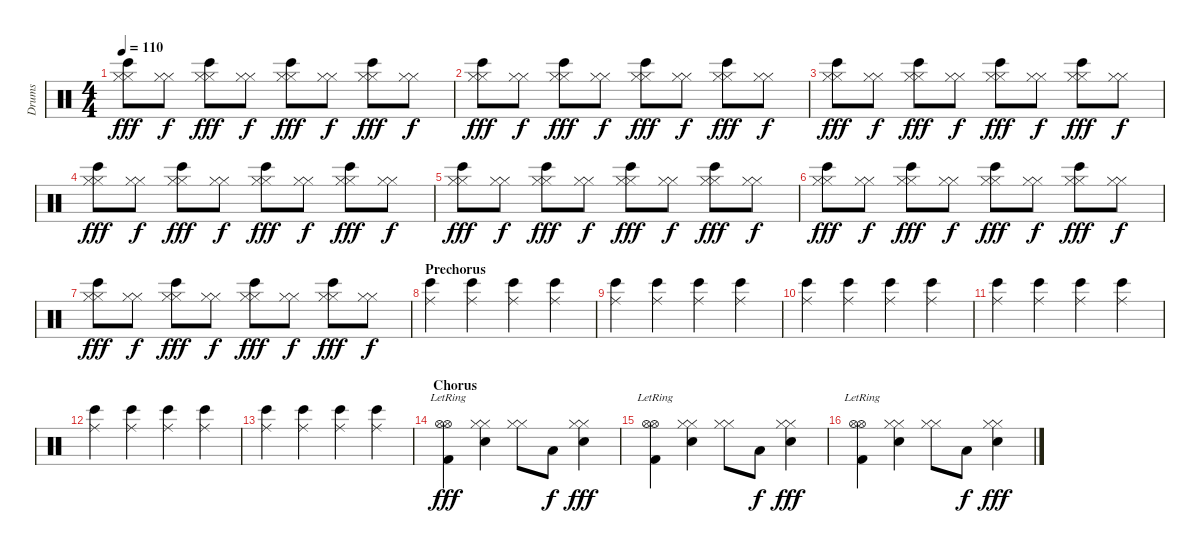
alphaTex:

\track ("Drums" "Drums") {instrument percussion}
\staff {score}
\articulation defaults
\ts (4 4)
\tempo 110
\clef neutral
\ks c
("Hi-Hat (closed)" "Hi-Hat (closed)" "Bongo High (hit)").8{dy fff} ("Hi-Hat (closed)" "Hi-Hat (closed)").8{dy f} ("Hi-Hat (closed)" "Hi-Hat (closed)" "Bongo High (hit)").8{dy fff} ("Hi-Hat (closed)" "Hi-Hat (closed)").8{dy f} ("Hi-Hat (closed)" "Hi-Hat (closed)" "Bongo High (hit)").8{dy fff} ("Hi-Hat (closed)" "Hi-Hat (closed)").8{dy f} ("Hi-Hat (closed)" "Hi-Hat (closed)" "Bongo High (hit)").8{dy fff} ("Hi-Hat (closed)" "Hi-Hat (closed)").8{dy f} |
("Hi-Hat (closed)" "Hi-Hat (closed)" "Bongo High (hit)").8{dy fff} ("Hi-Hat (closed)" "Hi-Hat (closed)").8{dy f} ("Hi-Hat (closed)" "Hi-Hat (closed)" "Bongo High (hit)").8{dy fff} ("Hi-Hat (closed)" "Hi-Hat (closed)").8{dy f} ("Hi-Hat (closed)" "Hi-Hat (closed)" "Bongo High (hit)").8{dy fff} ("Hi-Hat (closed)" "Hi-Hat (closed)").8{dy f} ("Hi-Hat (closed)" "Hi-Hat (closed)" "Bongo High (hit)").8{dy fff} ("Hi-Hat (closed)" "Hi-Hat (closed)").8{dy f} |
("Hi-Hat (closed)" "Hi-Hat (closed)" "Bongo High (hit)").8{dy fff} ("Hi-Hat (closed)" "Hi-Hat (closed)").8{dy f} ("Hi-Hat (closed)" "Hi-Hat (closed)" "Bongo High (hit)").8{dy fff} ("Hi-Hat (closed)" "Hi-Hat (closed)").8{dy f} ("Hi-Hat (closed)" "Hi-Hat (closed)" "Bongo High (hit)").8{dy fff} ("Hi-Hat (closed)" "Hi-Hat (closed)").8{dy f} ("Hi-Hat (closed)" "Hi-Hat (closed)" "Bongo High (hit)").8{dy fff} ("Hi-Hat (closed)" "Hi-Hat (closed)").8{dy f} |
("Hi-Hat (closed)" "Hi-Hat (closed)" "Bongo High (hit)").8{dy fff} ("Hi-Hat (closed)" "Hi-Hat (closed)").8{dy f} ("Hi-Hat (closed)" "Hi-Hat (closed)" "Bongo High (hit)").8{dy fff} ("Hi-Hat (closed)" "Hi-Hat (closed)").8{dy f} ("Hi-Hat (closed)" "Hi-Hat (closed)" "Bongo High (hit)").8{dy fff} ("Hi-Hat (closed)" "Hi-Hat (closed)").8{dy f} ("Hi-Hat (closed)" "Hi-Hat (closed)" "Bongo High (hit)").8{dy fff} ("Hi-Hat (closed)" "Hi-Hat (closed)").8{dy f} |
("Hi-Hat (closed)" "Hi-Hat (closed)" "Bongo High (hit)").8{dy fff} ("Hi-Hat (closed)" "Hi-Hat (closed)").8{dy f} ("Hi-Hat (closed)" "Hi-Hat (closed)" "Bongo High (hit)").8{dy fff} ("Hi-Hat (closed)" "Hi-Hat (closed)").8{dy f} ("Hi-Hat (closed)" "Hi-Hat (closed)" "Bongo High (hit)").8{dy fff} ("Hi-Hat (closed)" "Hi-Hat (closed)").8{dy f} ("Hi-Hat (closed)" "Hi-Hat (closed)" "Bongo High (hit)").8{dy fff} ("Hi-Hat (closed)" "Hi-Hat (closed)").8{dy f} |
("Hi-Hat (closed)" "Hi-Hat (closed)" "Bongo High (hit)").8{dy fff} ("Hi-Hat (closed)" "Hi-Hat (closed)").8{dy f} ("Hi-Hat (closed)" "Hi-Hat (closed)" "Bongo High (hit)").8{dy fff} ("Hi-Hat (closed)" "Hi-Hat (closed)").8{dy f} ("Hi-Hat (closed)" "Hi-Hat (closed)" "Bongo High (hit)").8{dy fff} ("Hi-Hat (closed)" "Hi-Hat (closed)").8{dy f} ("Hi-Hat (closed)" "Hi-Hat (closed)" "Bongo High (hit)").8{dy fff} ("Hi-Hat (closed)" "Hi-Hat (closed)").8{dy f} |
("Hi-Hat (closed)" "Hi-Hat (closed)" "Bongo High (hit)").8{dy fff} ("Hi-Hat (closed)" "Hi-Hat (closed)").8{dy f} ("Hi-Hat (closed)" "Hi-Hat (closed)" "Bongo High (hit)").8{dy fff} ("Hi-Hat (closed)" "Hi-Hat (closed)").8{dy f} ("Hi-Hat (closed)" "Hi-Hat (closed)" "Bongo High (hit)").8{dy fff} ("Hi-Hat (closed)" "Hi-Hat (closed)").8{dy f} ("Hi-Hat (closed)" "Hi-Hat (closed)" "Bongo High (hit)").8{dy fff} ("Hi-Hat (closed)" "Hi-Hat (closed)").8{dy f} |
\section ("" "Prechorus")
("Ride (middle)" "Bongo High (hit)").4 ("Ride (middle)" "Bongo High (hit)").4 ("Ride (middle)" "Bongo High (hit)").4 ("Ride (middle)" "Bongo High (hit)").4 |
("Ride (middle)" "Bongo High (hit)").4 ("Ride (middle)" "Bongo High (hit)").4 ("Ride (middle)" "Bongo High (hit)").4 ("Ride (middle)" "Bongo High (hit)").4 |
("Ride (middle)" "Bongo High (hit)").4 ("Ride (middle)" "Bongo High (hit)").4 ("Ride (middle)" "Bongo High (hit)").4 ("Ride (middle)" "Bongo High (hit)").4 |
("Ride (middle)" "Bongo High (hit)").4 ("Ride (middle)" "Bongo High (hit)").4 ("Ride (middle)" "Bongo High (hit)").4 ("Ride (middle)" "Bongo High (hit)").4 |
("Ride (middle)" "Bongo High (hit)").4 ("Ride (middle)" "Bongo High (hit)").4 ("Ride (middle)" "Bongo High (hit)").4 ("Ride (middle)" "Bongo High (hit)").4 |
("Ride (middle)" "Bongo High (hit)").4 ("Ride (middle)" "Bongo High (hit)").4 ("Ride (middle)" "Bongo High (hit)").4 ("Ride (middle)" "Bongo High (hit)").4 |
\section ("" "Chorus")
("Hi-Hat (open)"{lr} "Hi-Hat (open)"{lr} "Kick (hit) 2").4{dy fff} ("Hi-Hat (closed)" "Hi-Hat (closed)" "Electric Snare (hit)").4 ("Hi-Hat (closed)" "Hi-Hat (closed)").8 "Low Tom (hit)".8{dy f} ("Hi-Hat (closed)" "Hi-Hat (closed)" "Electric Snare (hit)").4{dy fff} |
("Hi-Hat (open)"{lr} "Hi-Hat (open)"{lr} "Kick (hit) 2").4 ("Hi-Hat (closed)" "Hi-Hat (closed)" "Electric Snare (hit)").4 ("Hi-Hat (closed)" "Hi-Hat (closed)").8 "Low Tom (hit)".8{dy f} ("Hi-Hat (closed)" "Hi-Hat (closed)" "Electric Snare (hit)").4{dy fff} |
("Hi-Hat (open)"{lr} "Hi-Hat (open)"{lr} "Kick (hit) 2").4 ("Hi-Hat (closed)" "Hi-Hat (closed)" "Electric Snare (hit)").4 ("Hi-Hat (closed)" "Hi-Hat (closed)").8 "Low Tom (hit)".8{dy f} ("Hi-Hat (closed)" "Hi-Hat (closed)" "Electric Snare (hit)").4{dy fff}
